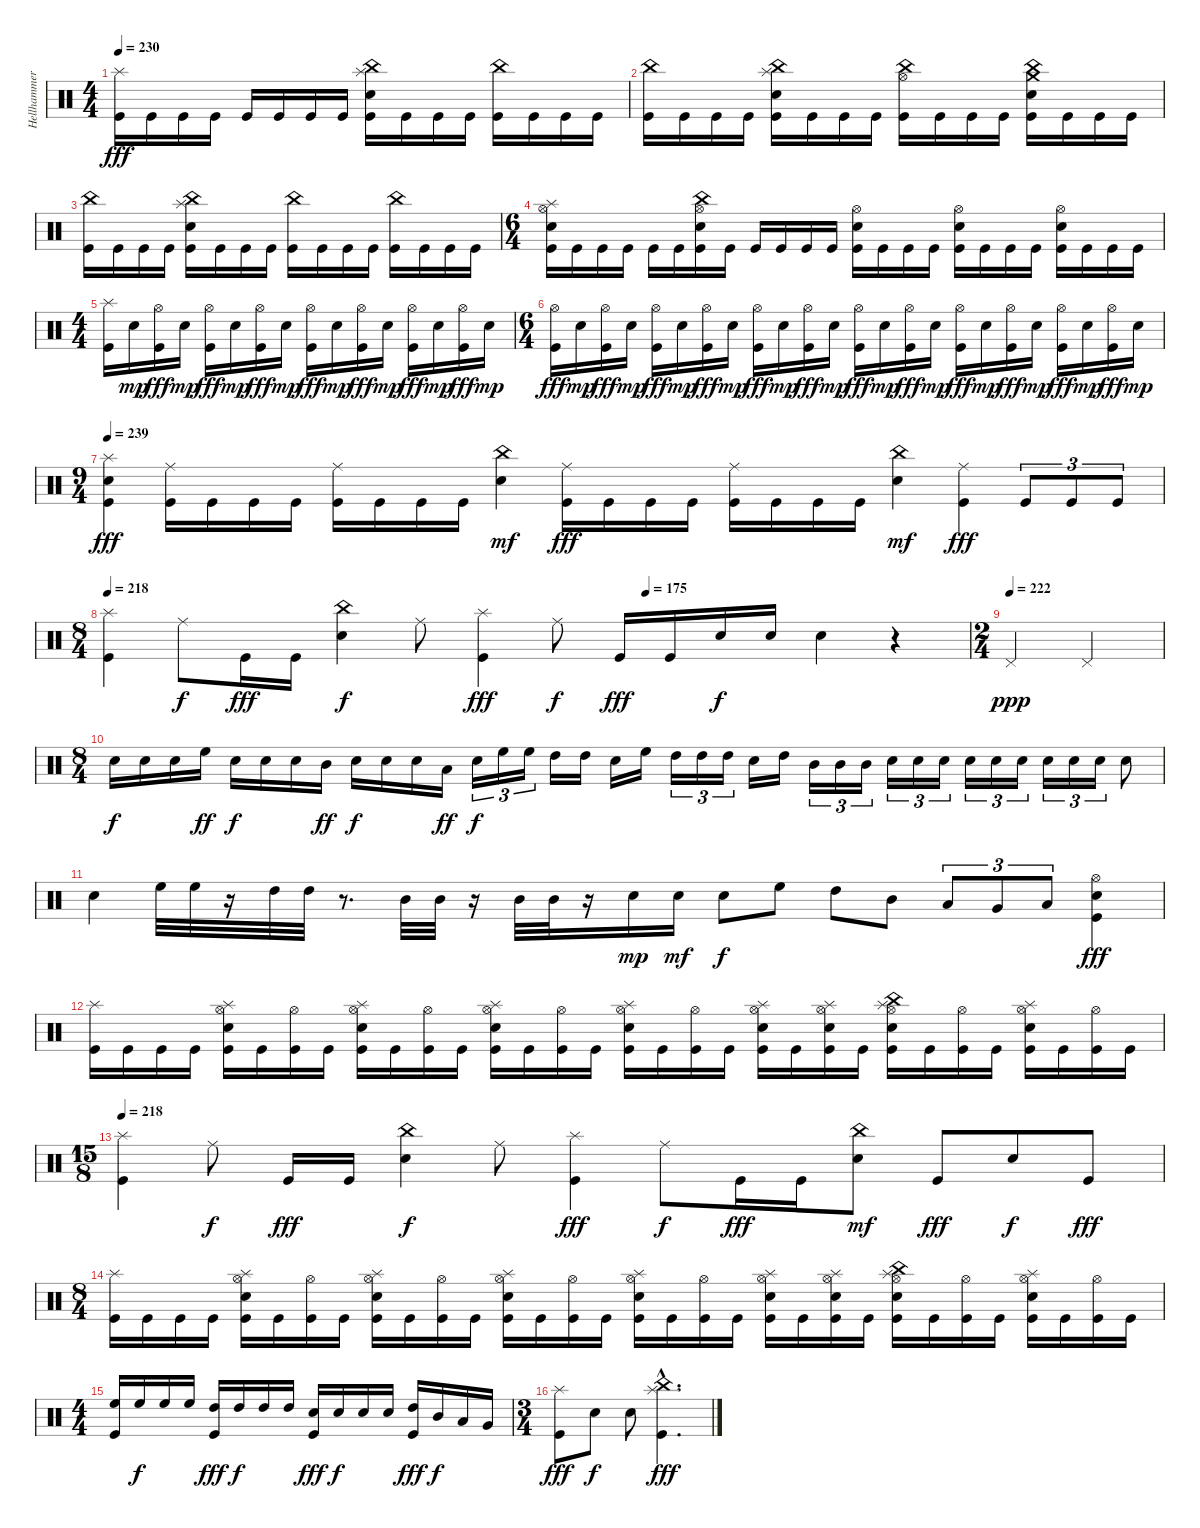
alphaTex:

\track ("Hellhammer" "Hellhammer") {instrument percussion}
\staff {score}
\articulation defaults
\ts (4 4)
\tempo 230
\clef neutral
\ks c
("Splash (hit)" "Kick (hit)").16{dy fff} "Kick (hit)".16 "Kick (hit)".16 "Kick (hit)".16 "Kick (hit)".16 "Kick (hit)".16 "Kick (hit)".16 "Kick (hit)".16 ("Splash (hit)" "China (hit)" "Electric Snare (hit)" "Kick (hit)").16 "Kick (hit)".16 "Kick (hit)".16 "Kick (hit)".16 ("China (hit)" "Kick (hit)").16 "Kick (hit)".16 "Kick (hit)".16 "Kick (hit)".16 |
("China (hit)" "Kick (hit)").16 "Kick (hit)".16 "Kick (hit)".16 "Kick (hit)".16 ("Splash (hit)" "China (hit)" "Electric Snare (hit)" "Kick (hit)").16 "Kick (hit)".16 "Kick (hit)".16 "Kick (hit)".16 ("China (hit)" "Hi-Hat (open)" "Kick (hit)").16 "Kick (hit)".16 "Kick (hit)".16 "Kick (hit)".16 ("Crash medium (hit)" "China (hit)" "Electric Snare (hit)" "Kick (hit)").16 "Kick (hit)".16 "Kick (hit)".16 "Kick (hit)".16 |
("China (hit)" "Kick (hit)").16 "Kick (hit)".16 "Kick (hit)".16 "Kick (hit)".16 ("Splash (hit)" "China (hit)" "Electric Snare (hit)" "Kick (hit)").16 "Kick (hit)".16 "Kick (hit)".16 "Kick (hit)".16 ("China (hit)" "Kick (hit)").16 "Kick (hit)".16 "Kick (hit)".16 "Kick (hit)".16 ("China (hit)" "Kick (hit)").16 "Kick (hit)".16 "Kick (hit)".16 "Kick (hit)".16 |
\ts (6 4)
("Splash (hit)" "Hi-Hat (open)" "Electric Snare (hit)" "Kick (hit)").16 "Kick (hit)".16 "Kick (hit)".16 "Kick (hit)".16 "Kick (hit)".16 "Kick (hit)".16 ("China (hit)" "Hi-Hat (open)" "Electric Snare (hit)" "Kick (hit)").16 "Kick (hit)".16 "Kick (hit)".16 "Kick (hit)".16 "Kick (hit)".16 "Kick (hit)".16 ("Hi-Hat (open)" "Electric Snare (hit)" "Kick (hit)").16 "Kick (hit)".16 "Kick (hit)".16 "Kick (hit)".16 ("Hi-Hat (open)" "Electric Snare (hit)" "Kick (hit)").16 "Kick (hit)".16 "Kick (hit)".16 "Kick (hit)".16 ("Hi-Hat (open)" "Electric Snare (hit)" "Kick (hit)").16 "Kick (hit)".16 "Kick (hit)".16 "Kick (hit)".16 |
\ts (4 4)
("Splash (hit)" "Kick (hit)").16 "Electric Snare (hit)".16{dy mp} ("Hi-Hat (open)" "Kick (hit)").16{dy fff} "Electric Snare (hit)".16{dy mp} ("Hi-Hat (open)" "Kick (hit)").16{dy fff} "Electric Snare (hit)".16{dy mp} ("Hi-Hat (open)" "Kick (hit)").16{dy fff} "Electric Snare (hit)".16{dy mp} ("Hi-Hat (open)" "Kick (hit)").16{dy fff} "Electric Snare (hit)".16{dy mp} ("Hi-Hat (open)" "Kick (hit)").16{dy fff} "Electric Snare (hit)".16{dy mp} ("Hi-Hat (open)" "Kick (hit)").16{dy fff} "Electric Snare (hit)".16{dy mp} ("Hi-Hat (open)" "Kick (hit)").16{dy fff} "Electric Snare (hit)".16{dy mp} |
\ts (6 4)
("Hi-Hat (open)" "Kick (hit)").16{dy fff} "Electric Snare (hit)".16{dy mp} ("Hi-Hat (open)" "Kick (hit)").16{dy fff} "Electric Snare (hit)".16{dy mp} ("Hi-Hat (open)" "Kick (hit)").16{dy fff} "Electric Snare (hit)".16{dy mp} ("Hi-Hat (open)" "Kick (hit)").16{dy fff} "Electric Snare (hit)".16{dy mp} ("Hi-Hat (open)" "Kick (hit)").16{dy fff} "Electric Snare (hit)".16{dy mp} ("Hi-Hat (open)" "Kick (hit)").16{dy fff} "Electric Snare (hit)".16{dy mp} ("Hi-Hat (open)" "Kick (hit)").16{dy fff} "Electric Snare (hit)".16{dy mp} ("Hi-Hat (open)" "Kick (hit)").16{dy fff} "Electric Snare (hit)".16{dy mp} ("Hi-Hat (open)" "Kick (hit)").16{dy fff} "Electric Snare (hit)".16{dy mp} ("Hi-Hat (open)" "Kick (hit)").16{dy fff} "Electric Snare (hit)".16{dy mp} ("Hi-Hat (open)" "Kick (hit)").16{dy fff} "Electric Snare (hit)".16{dy mp} ("Hi-Hat (open)" "Kick (hit)").16{dy fff} "Electric Snare (hit)".16{dy mp} |
\ts (9 4)
\tempo 239
("Electric Snare (hit)" "Splash (hit)" "Kick (hit)").4{dy fff} ("Ride (middle)" "Kick (hit)").16 "Kick (hit)".16 "Kick (hit)".16 "Kick (hit)".16 ("Ride (middle)" "Kick (hit)").16 "Kick (hit)".16 "Kick (hit)".16 "Kick (hit)".16 ("China (hit)" "Electric Snare (hit)").4{dy mf} ("Ride (middle)" "Kick (hit)").16{dy fff} "Kick (hit)".16 "Kick (hit)".16 "Kick (hit)".16 ("Ride (middle)" "Kick (hit)").16 "Kick (hit)".16 "Kick (hit)".16 "Kick (hit)".16 ("China (hit)" "Electric Snare (hit)").4{dy mf} ("Ride (middle)" "Kick (hit)").4{dy fff} "Kick (hit)".8{tu (3 2)} "Kick (hit)".8{tu (3 2)} "Kick (hit)".8{tu (3 2)} |
\ts (8 4)
\tempo (175 0.625)
\tempo 218
("Splash (hit)" "Kick (hit)").4 "Ride (middle)".8{dy f} "Kick (hit)".16{dy fff} "Kick (hit)".16 ("China (hit)" "Electric Snare (hit)").4{dy f} "Ride (middle)".8 ("Splash (hit)" "Kick (hit)").4{dy fff} "Ride (middle)".8{dy f} "Kick (hit)".16{dy fff} "Kick (hit)".16 "Electric Snare (hit)".16{dy f} "Electric Snare (hit)".16 "Electric Snare (hit)".4 r.4 |
\ts (2 4)
\tempo (222)
"Pedal Hi-Hat (hit)".4{dy ppp} "Pedal Hi-Hat (hit)".4 |
\ts (8 4)
"Electric Snare (hit)".16{dy f} "Electric Snare (hit)".16 "Electric Snare (hit)".16 "High Floor Tom (hit)".16{dy ff} "Electric Snare (hit)".16{dy f} "Electric Snare (hit)".16 "Electric Snare (hit)".16 "Mid Tom (hit)".16{dy ff} "Electric Snare (hit)".16{dy f} "Electric Snare (hit)".16 "Electric Snare (hit)".16 "Low Tom (hit)".16{dy ff} "Electric Snare (hit)".16{tu (3 2) dy f} "High Floor Tom (hit)".16{tu (3 2)} "High Floor Tom (hit)".16{tu (3 2)} "High Tom (hit)".16 "High Tom (hit)".16 "Electric Snare (hit)".16 "High Floor Tom (hit)".16 "High Tom (hit)".16{tu (3 2)} "High Tom (hit)".16{tu (3 2)} "High Tom (hit)".16{tu (3 2)} "Electric Snare (hit)".16 "High Tom (hit)".16 "Mid Tom (hit)".16{tu (3 2)} "Mid Tom (hit)".16{tu (3 2)} "Mid Tom (hit)".16{tu (3 2)} "Electric Snare (hit)".16{tu (3 2)} "Electric Snare (hit)".16{tu (3 2)} "Electric Snare (hit)".16{tu (3 2)} "Electric Snare (hit)".16{tu (3 2)} "Electric Snare (hit)".16{tu (3 2)} "Electric Snare (hit)".16{tu (3 2)} "Electric Snare (hit)".16{tu (3 2)} "Electric Snare (hit)".16{tu (3 2)} "Electric Snare (hit)".16{tu (3 2)} "Electric Snare (hit)".8 |
"Electric Snare (hit)".4 "High Floor Tom (hit)".32 "High Floor Tom (hit)".32 r.16 "High Tom (hit)".32 "High Tom (hit)".32 r.8{d} "Mid Tom (hit)".32 "Mid Tom (hit)".32 r.16 "Mid Tom (hit)".32 "Mid Tom (hit)".32 r.16 "Electric Snare (hit)".16{dy mp} "Electric Snare (hit)".16{dy mf} "Electric Snare (hit)".8{dy f} "High Floor Tom (hit)".8 "High Tom (hit)".8 "Mid Tom (hit)".8 "Low Tom (hit)".8{tu (3 2)} "Very Low Tom (hit)".8{tu (3 2)} "Low Floor Tom (hit)".8{tu (3 2)} ("Hi-Hat (open)" "Electric Snare (hit)" "Kick (hit)").4{dy fff} |
("Splash (hit)" "Kick (hit)").16 "Kick (hit)".16 "Kick (hit)".16 "Kick (hit)".16 ("Splash (hit)" "Hi-Hat (open)" "Electric Snare (hit)" "Kick (hit)").16 "Kick (hit)".16 ("Hi-Hat (open)" "Kick (hit)").16 "Kick (hit)".16 ("Splash (hit)" "Hi-Hat (open)" "Electric Snare (hit)" "Kick (hit)").16 "Kick (hit)".16 ("Hi-Hat (open)" "Kick (hit)").16 "Kick (hit)".16 ("Splash (hit)" "Hi-Hat (open)" "Electric Snare (hit)" "Kick (hit)").16 "Kick (hit)".16 ("Hi-Hat (open)" "Kick (hit)").16 "Kick (hit)".16 ("Splash (hit)" "Hi-Hat (open)" "Electric Snare (hit)" "Kick (hit)").16 "Kick (hit)".16 ("Hi-Hat (open)" "Kick (hit)").16 "Kick (hit)".16 ("Splash (hit)" "Hi-Hat (open)" "Electric Snare (hit)" "Kick (hit)").16 "Kick (hit)".16 ("Splash (hit)" "Hi-Hat (open)" "Electric Snare (hit)" "Kick (hit)").16 "Kick (hit)".16 ("China (hit)" "Splash (hit)" "Hi-Hat (open)" "Electric Snare (hit)" "Kick (hit)").16 "Kick (hit)".16 ("Hi-Hat (open)" "Kick (hit)").16 "Kick (hit)".16 ("Splash (hit)" "Hi-Hat (open)" "Electric Snare (hit)" "Kick (hit)").16 "Kick (hit)".16 ("Hi-Hat (open)" "Kick (hit)").16 "Kick (hit)".16 |
\ts (15 8)
\tempo 218
("Splash (hit)" "Kick (hit)").4 "Ride (middle)".8{dy f} "Kick (hit)".16{dy fff} "Kick (hit)".16 ("China (hit)" "Electric Snare (hit)").4{dy f} "Ride (middle)".8 ("Splash (hit)" "Kick (hit)").4{dy fff} "Ride (middle)".8{dy f} "Kick (hit)".16{dy fff} "Kick (hit)".16 ("China (hit)" "Electric Snare (hit)").8{dy mf} "Kick (hit)".8{dy fff} "Electric Snare (hit)".8{dy f} "Kick (hit)".8{dy fff} |
\ts (8 4)
("Splash (hit)" "Kick (hit)").16 "Kick (hit)".16 "Kick (hit)".16 "Kick (hit)".16 ("Splash (hit)" "Hi-Hat (open)" "Electric Snare (hit)" "Kick (hit)").16 "Kick (hit)".16 ("Hi-Hat (open)" "Kick (hit)").16 "Kick (hit)".16 ("Splash (hit)" "Hi-Hat (open)" "Electric Snare (hit)" "Kick (hit)").16 "Kick (hit)".16 ("Hi-Hat (open)" "Kick (hit)").16 "Kick (hit)".16 ("Splash (hit)" "Hi-Hat (open)" "Electric Snare (hit)" "Kick (hit)").16 "Kick (hit)".16 ("Hi-Hat (open)" "Kick (hit)").16 "Kick (hit)".16 ("Splash (hit)" "Hi-Hat (open)" "Electric Snare (hit)" "Kick (hit)").16 "Kick (hit)".16 ("Hi-Hat (open)" "Kick (hit)").16 "Kick (hit)".16 ("Splash (hit)" "Hi-Hat (open)" "Electric Snare (hit)" "Kick (hit)").16 "Kick (hit)".16 ("Splash (hit)" "Hi-Hat (open)" "Electric Snare (hit)" "Kick (hit)").16 "Kick (hit)".16 ("China (hit)" "Splash (hit)" "Hi-Hat (open)" "Electric Snare (hit)" "Kick (hit)").16 "Kick (hit)".16 ("Hi-Hat (open)" "Kick (hit)").16 "Kick (hit)".16 ("Splash (hit)" "Hi-Hat (open)" "Electric Snare (hit)" "Kick (hit)").16 "Kick (hit)".16 ("Hi-Hat (open)" "Kick (hit)").16 "Kick (hit)".16 |
\ts (4 4)
("High Floor Tom (hit)" "Kick (hit)").16 "High Floor Tom (hit)".16{dy f} "High Floor Tom (hit)".16 "High Floor Tom (hit)".16 ("High Tom (hit)" "Kick (hit)").16{dy fff} "High Tom (hit)".16{dy f} "High Tom (hit)".16 "High Tom (hit)".16 ("Electric Snare (hit)" "Kick (hit)").16{dy fff} "Electric Snare (hit)".16{dy f} "Electric Snare (hit)".16 "Electric Snare (hit)".16 ("High Tom (hit)" "Kick (hit)").16{dy fff} "Mid Tom (hit)".16{dy f} "Low Tom (hit)".16 "Very Low Tom (hit)".16 |
\ts (3 4)
("Splash (hit)" "Kick (hit)").8{dy fff} "Electric Snare (hit)".8{dy f} "Electric Snare (hit)".8 ("Splash (hit)"{hac} "China (hit)"{hac} "Kick (hit)"{hac}).4{d dy fff}
